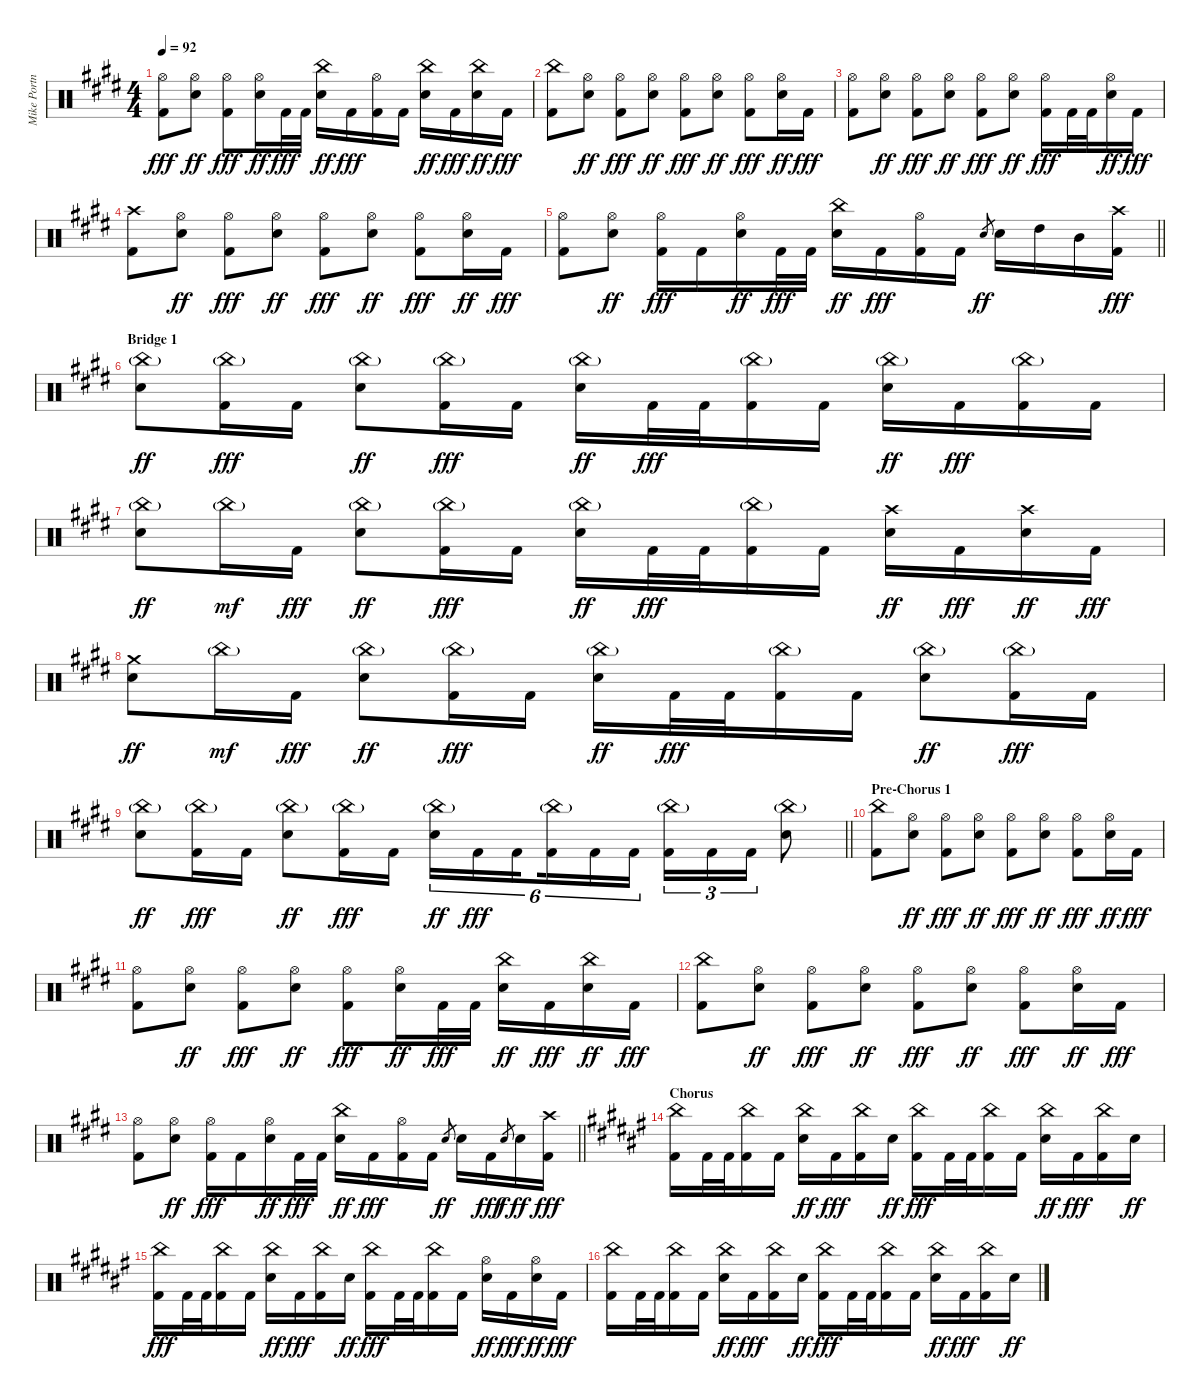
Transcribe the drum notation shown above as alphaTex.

\track ("Mike Portnoy" "Mike Portn") {instrument percussion}
\staff {score}
\articulation defaults
\ts (4 4)
\tempo 92
\clef neutral
\ks e
("Hi-Hat (open)" "Kick (hit) 2").8{dy fff} ("Hi-Hat (open)" "Electric Snare (hit)").8{dy ff} ("Hi-Hat (open)" "Kick (hit) 2").8{dy fff} ("Hi-Hat (open)" "Electric Snare (hit)").16{dy ff} "Kick (hit) 2".32{dy fff} "Kick (hit) 2".32 ("China (hit)" "Electric Snare (hit)").16{dy ff} "Kick (hit) 2".16{dy fff} ("Hi-Hat (open)" "Kick (hit) 2").16 "Kick (hit) 2".16 ("China (hit)" "Electric Snare (hit)").16{dy ff} "Kick (hit) 2".16{dy fff} ("China (hit)" "Electric Snare (hit)").16{dy ff} "Kick (hit) 2".16{dy fff} |
("China (hit)" "Kick (hit) 2").8 ("Hi-Hat (open)" "Electric Snare (hit)").8{dy ff} ("Hi-Hat (open)" "Kick (hit) 2").8{dy fff} ("Hi-Hat (open)" "Electric Snare (hit)").8{dy ff} ("Hi-Hat (open)" "Kick (hit) 2").8{dy fff} ("Hi-Hat (open)" "Electric Snare (hit)").8{dy ff} ("Hi-Hat (open)" "Kick (hit) 2").8{dy fff} ("Hi-Hat (open)" "Electric Snare (hit)").16{dy ff} "Kick (hit) 2".16{dy fff} |
("Hi-Hat (open)" "Kick (hit) 2").8 ("Hi-Hat (open)" "Electric Snare (hit)").8{dy ff} ("Hi-Hat (open)" "Kick (hit) 2").8{dy fff} ("Hi-Hat (open)" "Electric Snare (hit)").8{dy ff} ("Hi-Hat (open)" "Kick (hit) 2").8{dy fff} ("Hi-Hat (open)" "Electric Snare (hit)").8{dy ff} ("Hi-Hat (open)" "Kick (hit) 2").16{dy fff} "Kick (hit) 2".32 "Kick (hit) 2".32 ("Hi-Hat (open)" "Electric Snare (hit)").16{dy ff} "Kick (hit) 2".16{dy fff} |
("Crash high (hit)" "Kick (hit) 2").8 ("Hi-Hat (open)" "Electric Snare (hit)").8{dy ff} ("Hi-Hat (open)" "Kick (hit) 2").8{dy fff} ("Hi-Hat (open)" "Electric Snare (hit)").8{dy ff} ("Hi-Hat (open)" "Kick (hit) 2").8{dy fff} ("Hi-Hat (open)" "Electric Snare (hit)").8{dy ff} ("Hi-Hat (open)" "Kick (hit) 2").8{dy fff} ("Hi-Hat (open)" "Electric Snare (hit)").16{dy ff} "Kick (hit) 2".16{dy fff} |
\barLineRight lightlight
("Hi-Hat (open)" "Kick (hit) 2").8 ("Hi-Hat (open)" "Electric Snare (hit)").8{dy ff} ("Hi-Hat (open)" "Kick (hit) 2").16{dy fff} "Kick (hit) 2".16 ("Hi-Hat (open)" "Electric Snare (hit)").16{dy ff} "Kick (hit) 2".32{dy fff} "Kick (hit) 2".32 ("China (hit)" "Electric Snare (hit)").16{dy ff} "Kick (hit) 2".16{dy fff} ("Hi-Hat (open)" "Kick (hit) 2").16 "Kick (hit) 2".16 "Electric Snare (hit)".8{gr dy ff} "Electric Snare (hit)".16 "High Tom (hit)".16 "Mid Tom (hit)".16 ("Crash high (hit)" "Kick (hit) 2").16{dy fff} |
\section ("" "Bridge 1")
("China (hit)"{g} "Electric Snare (hit)").8{dy ff} ("China (hit)"{g} "Kick (hit) 2").16{dy fff} "Kick (hit) 2".16 ("China (hit)"{g} "Electric Snare (hit)").8{dy ff} ("China (hit)"{g} "Kick (hit) 2").16{dy fff} "Kick (hit) 2".16 ("China (hit)"{g} "Electric Snare (hit)").16{dy ff} "Kick (hit) 2".32{dy fff} "Kick (hit) 2".32 ("China (hit)"{g} "Kick (hit) 2").16 "Kick (hit) 2".16 ("China (hit)"{g} "Electric Snare (hit)").16{dy ff} "Kick (hit) 2".16{dy fff} ("China (hit)"{g} "Kick (hit) 2").16 "Kick (hit) 2".16 |
("China (hit)"{g} "Electric Snare (hit)").8{dy ff} "China (hit)"{g}.16{dy mf} "Kick (hit) 2".16{dy fff} ("China (hit)"{g} "Electric Snare (hit)").8{dy ff} ("China (hit)"{g} "Kick (hit) 2").16{dy fff} "Kick (hit) 2".16 ("China (hit)"{g} "Electric Snare (hit)").16{dy ff} "Kick (hit) 2".32{dy fff} "Kick (hit) 2".32 ("China (hit)"{g} "Kick (hit) 2").16 "Kick (hit) 2".16 ("Crash high (hit)" "Electric Snare (hit)").16{dy ff} "Kick (hit) 2".16{dy fff} ("Crash high (hit)" "Electric Snare (hit)").16{dy ff} "Kick (hit) 2".16{dy fff} |
("Crash medium (hit)" "Electric Snare (hit)").8{dy ff} "China (hit)"{g}.16{dy mf} "Kick (hit) 2".16{dy fff} ("China (hit)"{g} "Electric Snare (hit)").8{dy ff} ("China (hit)"{g} "Kick (hit) 2").16{dy fff} "Kick (hit) 2".16 ("China (hit)"{g} "Electric Snare (hit)").16{dy ff} "Kick (hit) 2".32{dy fff} "Kick (hit) 2".32 ("China (hit)"{g} "Kick (hit) 2").16 "Kick (hit) 2".16 ("China (hit)"{g} "Electric Snare (hit)").8{dy ff} ("China (hit)"{g} "Kick (hit) 2").16{dy fff} "Kick (hit) 2".16 |
\barLineRight lightlight
("China (hit)"{g} "Electric Snare (hit)").8{dy ff} ("China (hit)"{g} "Kick (hit) 2").16{dy fff} "Kick (hit) 2".16 ("China (hit)"{g} "Electric Snare (hit)").8{dy ff} ("China (hit)"{g} "Kick (hit) 2").16{dy fff} "Kick (hit) 2".16 ("China (hit)"{g} "Electric Snare (hit)").16{tu (6 4) dy ff} "Kick (hit) 2".16{tu (6 4) dy fff} "Kick (hit) 2".16{tu (6 4) beam splitsecondary} ("China (hit)"{g} "Kick (hit) 2").16{tu (6 4)} "Kick (hit) 2".16{tu (6 4)} "Kick (hit) 2".16{tu (6 4)} ("China (hit)"{g} "Kick (hit) 2").16{tu (3 2)} "Kick (hit) 2".16{tu (3 2)} "Kick (hit) 2".16{tu (3 2)} ("China (hit)"{g} "Electric Snare (hit)").8 |
\section ("" "Pre-Chorus 1")
("China (hit)" "Kick (hit) 2").8 ("Hi-Hat (open)" "Electric Snare (hit)").8{dy ff} ("Hi-Hat (open)" "Kick (hit) 2").8{dy fff} ("Hi-Hat (open)" "Electric Snare (hit)").8{dy ff} ("Hi-Hat (open)" "Kick (hit) 2").8{dy fff} ("Hi-Hat (open)" "Electric Snare (hit)").8{dy ff} ("Hi-Hat (open)" "Kick (hit) 2").8{dy fff} ("Hi-Hat (open)" "Electric Snare (hit)").16{dy ff} "Kick (hit) 2".16{dy fff} |
("Hi-Hat (open)" "Kick (hit) 2").8 ("Hi-Hat (open)" "Electric Snare (hit)").8{dy ff} ("Hi-Hat (open)" "Kick (hit) 2").8{dy fff} ("Hi-Hat (open)" "Electric Snare (hit)").8{dy ff} ("Hi-Hat (open)" "Kick (hit) 2").8{dy fff} ("Hi-Hat (open)" "Electric Snare (hit)").16{dy ff} "Kick (hit) 2".32{dy fff} "Kick (hit) 2".32 ("China (hit)" "Electric Snare (hit)").16{dy ff} "Kick (hit) 2".16{dy fff} ("China (hit)" "Electric Snare (hit)").16{dy ff} "Kick (hit) 2".16{dy fff} |
("China (hit)" "Kick (hit) 2").8 ("Hi-Hat (open)" "Electric Snare (hit)").8{dy ff} ("Hi-Hat (open)" "Kick (hit) 2").8{dy fff} ("Hi-Hat (open)" "Electric Snare (hit)").8{dy ff} ("Hi-Hat (open)" "Kick (hit) 2").8{dy fff} ("Hi-Hat (open)" "Electric Snare (hit)").8{dy ff} ("Hi-Hat (open)" "Kick (hit) 2").8{dy fff} ("Hi-Hat (open)" "Electric Snare (hit)").16{dy ff} "Kick (hit) 2".16{dy fff} |
\barLineRight lightlight
("Hi-Hat (open)" "Kick (hit) 2").8 ("Hi-Hat (open)" "Electric Snare (hit)").8{dy ff} ("Hi-Hat (open)" "Kick (hit) 2").16{dy fff} "Kick (hit) 2".16 ("Hi-Hat (open)" "Electric Snare (hit)").16{dy ff} "Kick (hit) 2".32{dy fff} "Kick (hit) 2".32 ("China (hit)" "Electric Snare (hit)").16{dy ff} "Kick (hit) 2".16{dy fff} ("Hi-Hat (open)" "Kick (hit) 2").16 "Kick (hit) 2".16 "Electric Snare (hit)".8{gr dy ff} "Electric Snare (hit)".16 "Kick (hit) 2".16{dy fff} "Electric Snare (hit)".8{gr dy f} "Electric Snare (hit)".16{dy ff} ("Crash high (hit)" "Kick (hit) 2").16{dy fff} |
\section ("" "Chorus")
\ks f#
("China (hit)" "Kick (hit) 2").16 "Kick (hit) 2".32 "Kick (hit) 2".32 ("China (hit)" "Kick (hit) 2").16 "Kick (hit) 2".16 ("China (hit)" "Electric Snare (hit)").16{dy ff} "Kick (hit) 2".16{dy fff} ("China (hit)" "Kick (hit) 2").16 "Electric Snare (hit)".16{dy ff} ("China (hit)" "Kick (hit) 2").16{dy fff} "Kick (hit) 2".32 "Kick (hit) 2".32 ("China (hit)" "Kick (hit) 2").16 "Kick (hit) 2".16 ("China (hit)" "Electric Snare (hit)").16{dy ff} "Kick (hit) 2".16{dy fff} ("China (hit)" "Kick (hit) 2").16 "Electric Snare (hit)".16{dy ff} |
("China (hit)" "Kick (hit) 2").16{dy fff} "Kick (hit) 2".32 "Kick (hit) 2".32 ("China (hit)" "Kick (hit) 2").16 "Kick (hit) 2".16 ("China (hit)" "Electric Snare (hit)").16{dy ff} "Kick (hit) 2".16{dy fff} ("China (hit)" "Kick (hit) 2").16 "Electric Snare (hit)".16{dy ff} ("China (hit)" "Kick (hit) 2").16{dy fff} "Kick (hit) 2".32 "Kick (hit) 2".32 ("China (hit)" "Kick (hit) 2").16 "Kick (hit) 2".16 ("Hi-Hat (open)" "Electric Snare (hit)").16{dy ff} "Kick (hit) 2".16{dy fff} ("Hi-Hat (open)" "Electric Snare (hit)").16{dy ff} "Kick (hit) 2".16{dy fff} |
("China (hit)" "Kick (hit) 2").16 "Kick (hit) 2".32 "Kick (hit) 2".32 ("China (hit)" "Kick (hit) 2").16 "Kick (hit) 2".16 ("China (hit)" "Electric Snare (hit)").16{dy ff} "Kick (hit) 2".16{dy fff} ("China (hit)" "Kick (hit) 2").16 "Electric Snare (hit)".16{dy ff} ("China (hit)" "Kick (hit) 2").16{dy fff} "Kick (hit) 2".32 "Kick (hit) 2".32 ("China (hit)" "Kick (hit) 2").16 "Kick (hit) 2".16 ("China (hit)" "Electric Snare (hit)").16{dy ff} "Kick (hit) 2".16{dy fff} ("China (hit)" "Kick (hit) 2").16 "Electric Snare (hit)".16{dy ff}
